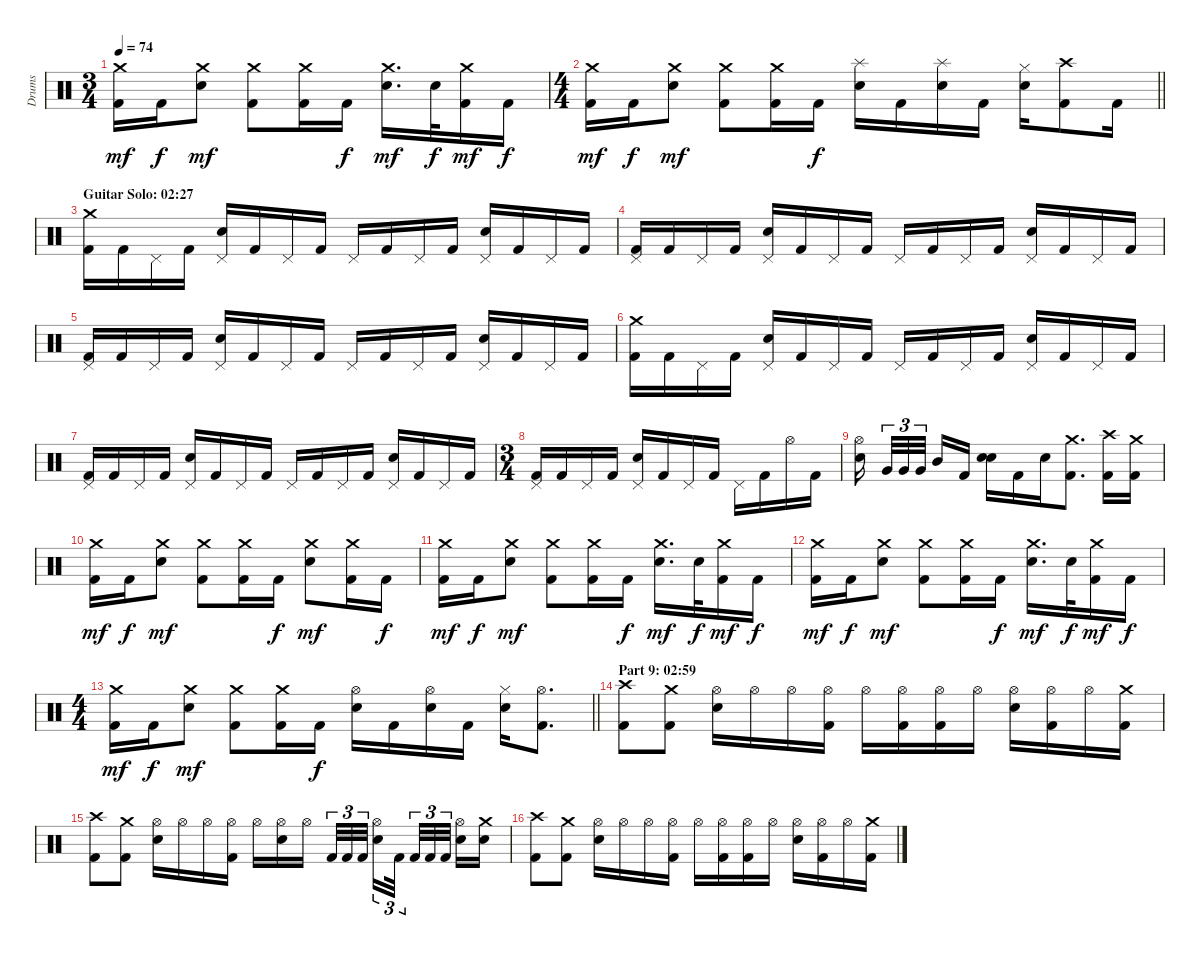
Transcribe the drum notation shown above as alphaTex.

\track ("Drums" "Drums") {instrument percussion}
\staff {score}
\articulation defaults
\ts (3 4)
\tempo 74
\clef neutral
\ks c
("Crash medium (hit)" "Kick (hit) 2").16{dy mf} "Kick (hit) 2".16{dy f} ("Crash medium (hit)" "Electric Snare (hit)").8{dy mf} ("Crash medium (hit)" "Kick (hit) 2").8 ("Crash medium (hit)" "Kick (hit) 2").16 "Kick (hit) 2".16{dy f} ("Crash medium (hit)" "Electric Snare (hit)").16{d dy mf} "Electric Snare (hit)".32{dy f} ("Crash medium (hit)" "Kick (hit) 2").16{dy mf} "Kick (hit) 2".16{dy f} |
\ts (4 4)
\barLineRight lightlight
("Crash medium (hit)" "Kick (hit) 2").16{dy mf} "Kick (hit) 2".16{dy f} ("Crash medium (hit)" "Electric Snare (hit)").8{dy mf} ("Crash medium (hit)" "Kick (hit) 2").8 ("Crash medium (hit)" "Kick (hit) 2").16 "Kick (hit) 2".16{dy f} ("Splash (hit)" "Electric Snare (hit)").16 "Kick (hit) 2".16 ("Splash (hit)" "Electric Snare (hit)").16 "Kick (hit) 2".16 ("Hi-Hat (closed)" "Electric Snare (hit)").16 ("Crash high (hit)" "Kick (hit) 2").8 "Kick (hit) 2".16 |
\section ("" "Guitar Solo: 02:27")
("Crash medium (hit)" "Kick (hit) 2").16 "Kick (hit) 2".16 "Pedal Hi-Hat (hit)".16 "Kick (hit) 2".16 ("Pedal Hi-Hat (hit)" "Electric Snare (hit)").16 "Kick (hit) 2".16 "Pedal Hi-Hat (hit)".16 "Kick (hit) 2".16 "Pedal Hi-Hat (hit)".16 "Kick (hit) 2".16 "Pedal Hi-Hat (hit)".16 "Kick (hit) 2".16 ("Pedal Hi-Hat (hit)" "Electric Snare (hit)").16 "Kick (hit) 2".16 "Pedal Hi-Hat (hit)".16 "Kick (hit) 2".16 |
("Pedal Hi-Hat (hit)" "Kick (hit) 2").16 "Kick (hit) 2".16 "Pedal Hi-Hat (hit)".16 "Kick (hit) 2".16 ("Pedal Hi-Hat (hit)" "Electric Snare (hit)").16 "Kick (hit) 2".16 "Pedal Hi-Hat (hit)".16 "Kick (hit) 2".16 "Pedal Hi-Hat (hit)".16 "Kick (hit) 2".16 "Pedal Hi-Hat (hit)".16 "Kick (hit) 2".16 ("Pedal Hi-Hat (hit)" "Electric Snare (hit)").16 "Kick (hit) 2".16 "Pedal Hi-Hat (hit)".16 "Kick (hit) 2".16 |
("Pedal Hi-Hat (hit)" "Kick (hit) 2").16 "Kick (hit) 2".16 "Pedal Hi-Hat (hit)".16 "Kick (hit) 2".16 ("Pedal Hi-Hat (hit)" "Electric Snare (hit)").16 "Kick (hit) 2".16 "Pedal Hi-Hat (hit)".16 "Kick (hit) 2".16 "Pedal Hi-Hat (hit)".16 "Kick (hit) 2".16 "Pedal Hi-Hat (hit)".16 "Kick (hit) 2".16 ("Pedal Hi-Hat (hit)" "Electric Snare (hit)").16 "Kick (hit) 2".16 "Pedal Hi-Hat (hit)".16 "Kick (hit) 2".16 |
("Crash medium (hit)" "Kick (hit) 2").16 "Kick (hit) 2".16 "Pedal Hi-Hat (hit)".16 "Kick (hit) 2".16 ("Pedal Hi-Hat (hit)" "Electric Snare (hit)").16 "Kick (hit) 2".16 "Pedal Hi-Hat (hit)".16 "Kick (hit) 2".16 "Pedal Hi-Hat (hit)".16 "Kick (hit) 2".16 "Pedal Hi-Hat (hit)".16 "Kick (hit) 2".16 ("Pedal Hi-Hat (hit)" "Electric Snare (hit)").16 "Kick (hit) 2".16 "Pedal Hi-Hat (hit)".16 "Kick (hit) 2".16 |
("Pedal Hi-Hat (hit)" "Kick (hit) 2").16 "Kick (hit) 2".16 "Pedal Hi-Hat (hit)".16 "Kick (hit) 2".16 ("Pedal Hi-Hat (hit)" "Electric Snare (hit)").16 "Kick (hit) 2".16 "Pedal Hi-Hat (hit)".16 "Kick (hit) 2".16 "Pedal Hi-Hat (hit)".16 "Kick (hit) 2".16 "Pedal Hi-Hat (hit)".16 "Kick (hit) 2".16 ("Pedal Hi-Hat (hit)" "Electric Snare (hit)").16 "Kick (hit) 2".16 "Pedal Hi-Hat (hit)".16 "Kick (hit) 2".16 |
\ts (3 4)
("Pedal Hi-Hat (hit)" "Kick (hit) 2").16 "Kick (hit) 2".16 "Pedal Hi-Hat (hit)".16 "Kick (hit) 2".16 ("Pedal Hi-Hat (hit)" "Electric Snare (hit)").16 "Kick (hit) 2".16 "Pedal Hi-Hat (hit)".16 "Kick (hit) 2".16 "Pedal Hi-Hat (hit)".16 "Kick (hit) 2".16 "Hi-Hat (open)".16 "Kick (hit) 2".16 |
("Hi-Hat (open)" "Electric Snare (hit)").16{beam splitsecondary} "Very Low Tom (hit)".32{tu (3 2)} "Very Low Tom (hit)".32{tu (3 2)} "Very Low Tom (hit)".32{tu (3 2) beam splitsecondary} "Mid Tom (hit)".16 "Kick (hit) 2".16 ("Electric Snare (hit)" "Electric Snare (hit)").16{bd 120} "Kick (hit) 2".16 "Electric Snare (hit)".16 ("Crash medium (hit)" "Kick (hit) 2").8{d} ("Crash high (hit)" "Kick (hit) 2").16 ("Crash medium (hit)" "Kick (hit) 2").16 |
("Crash medium (hit)" "Kick (hit) 2").16{dy mf} "Kick (hit) 2".16{dy f} ("Crash medium (hit)" "Electric Snare (hit)").8{dy mf} ("Crash medium (hit)" "Kick (hit) 2").8 ("Crash medium (hit)" "Kick (hit) 2").16 "Kick (hit) 2".16{dy f} ("Crash medium (hit)" "Electric Snare (hit)").8{dy mf} ("Crash medium (hit)" "Kick (hit) 2").16 "Kick (hit) 2".16{dy f} |
("Crash medium (hit)" "Kick (hit) 2").16{dy mf} "Kick (hit) 2".16{dy f} ("Crash medium (hit)" "Electric Snare (hit)").8{dy mf} ("Crash medium (hit)" "Kick (hit) 2").8 ("Crash medium (hit)" "Kick (hit) 2").16 "Kick (hit) 2".16{dy f} ("Crash medium (hit)" "Electric Snare (hit)").16{d dy mf} "Electric Snare (hit)".32{dy f} ("Crash medium (hit)" "Kick (hit) 2").16{dy mf} "Kick (hit) 2".16{dy f} |
("Crash medium (hit)" "Kick (hit) 2").16{dy mf} "Kick (hit) 2".16{dy f} ("Crash medium (hit)" "Electric Snare (hit)").8{dy mf} ("Crash medium (hit)" "Kick (hit) 2").8 ("Crash medium (hit)" "Kick (hit) 2").16 "Kick (hit) 2".16{dy f} ("Crash medium (hit)" "Electric Snare (hit)").16{d dy mf} "Electric Snare (hit)".32{dy f} ("Crash medium (hit)" "Kick (hit) 2").16{dy mf} "Kick (hit) 2".16{dy f} |
\ts (4 4)
\barLineRight lightlight
("Crash medium (hit)" "Kick (hit) 2").16{dy mf} "Kick (hit) 2".16{dy f} ("Crash medium (hit)" "Electric Snare (hit)").8{dy mf} ("Crash medium (hit)" "Kick (hit) 2").8 ("Crash medium (hit)" "Kick (hit) 2").16 "Kick (hit) 2".16{dy f} ("Hi-Hat (open)" "Electric Snare (hit)").16 "Kick (hit) 2".16 ("Hi-Hat (open)" "Electric Snare (hit)").16 "Kick (hit) 2".16 ("Hi-Hat (closed)" "Electric Snare (hit)").16 ("Hi-Hat (open)" "Kick (hit) 2").8{d} |
\section ("" "Part 9: 02:59")
("Crash high (hit)" "Kick (hit) 2").8 ("Crash medium (hit)" "Kick (hit) 2").8 ("Hi-Hat (open)" "Electric Snare (hit)").16 "Hi-Hat (open)".16 "Hi-Hat (open)".16 ("Hi-Hat (open)" "Kick (hit) 2").16 "Hi-Hat (open)".16 ("Hi-Hat (open)" "Kick (hit) 2").16 ("Hi-Hat (open)" "Kick (hit) 2").16 "Hi-Hat (open)".16 ("Hi-Hat (open)" "Electric Snare (hit)").16 ("Hi-Hat (open)" "Kick (hit) 2").16 "Hi-Hat (open)".16 ("Crash medium (hit)" "Kick (hit) 2").16 |
("Crash high (hit)" "Kick (hit) 2").8 ("Crash medium (hit)" "Kick (hit) 2").8 ("Hi-Hat (open)" "Electric Snare (hit)").16 "Hi-Hat (open)".16 "Hi-Hat (open)".16 ("Hi-Hat (open)" "Kick (hit) 2").16 "Hi-Hat (open)".16 ("Hi-Hat (open)" "Electric Snare (hit)").16 "Hi-Hat (open)".16{beam splitsecondary} "Kick (hit) 2".32{tu (3 2)} "Kick (hit) 2".32{tu (3 2)} "Kick (hit) 2".32{tu (3 2)} ("Hi-Hat (open)" "Electric Snare (hit)").16{tu (3 2)} "Kick (hit) 2".32{tu (3 2) beam splitsecondary} "Kick (hit) 2".32{tu (3 2)} "Kick (hit) 2".32{tu (3 2)} "Kick (hit) 2".32{tu (3 2) beam splitsecondary} ("Hi-Hat (open)" "Electric Snare (hit)").16 ("Crash medium (hit)" "Electric Snare (hit)").16 |
("Crash high (hit)" "Kick (hit) 2").8 ("Crash medium (hit)" "Kick (hit) 2").8 ("Hi-Hat (open)" "Electric Snare (hit)").16 "Hi-Hat (open)".16 "Hi-Hat (open)".16 ("Hi-Hat (open)" "Kick (hit) 2").16 "Hi-Hat (open)".16 ("Hi-Hat (open)" "Kick (hit) 2").16 ("Hi-Hat (open)" "Kick (hit) 2").16 "Hi-Hat (open)".16 ("Hi-Hat (open)" "Electric Snare (hit)").16 ("Hi-Hat (open)" "Kick (hit) 2").16 "Hi-Hat (open)".16 ("Crash medium (hit)" "Kick (hit) 2").16
